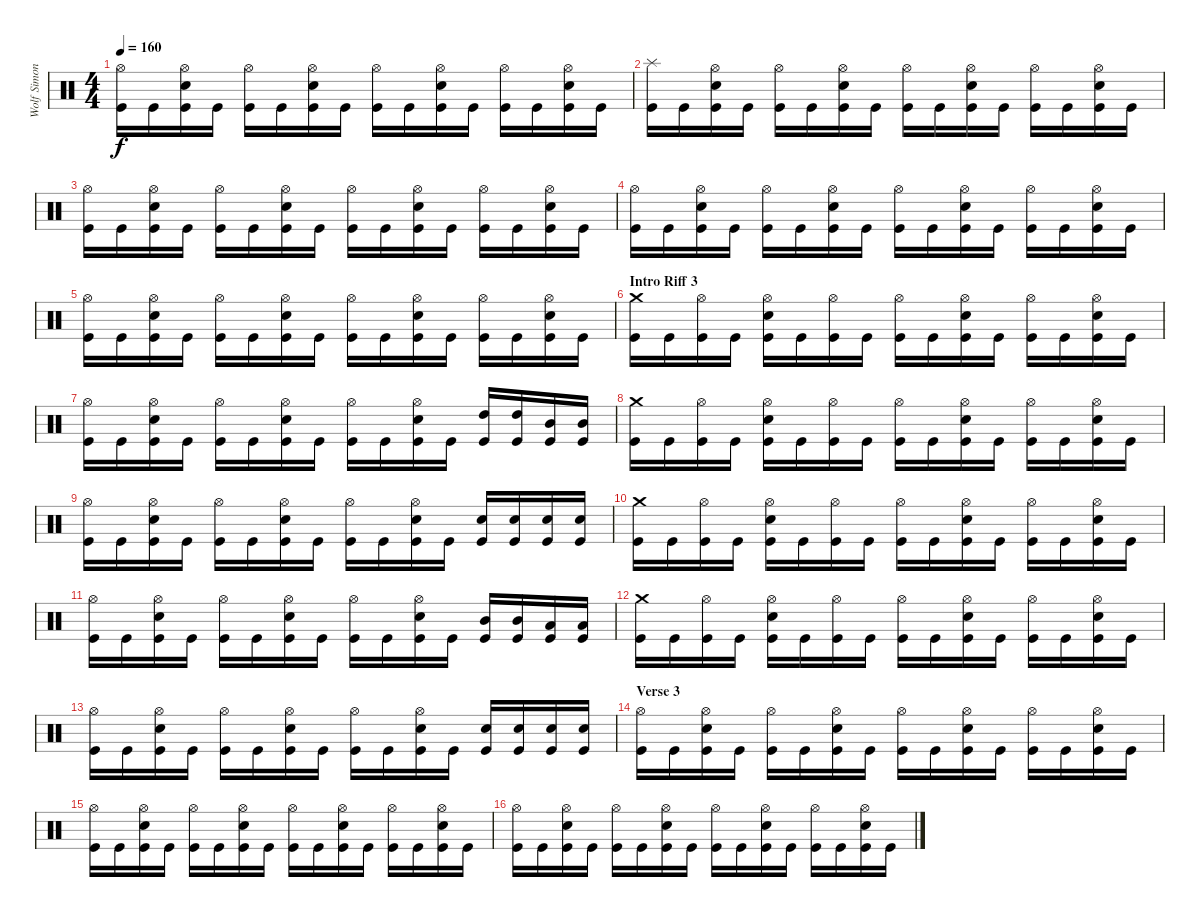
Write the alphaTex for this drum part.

\track ("Wolf Simons" "Wolf Simon") {instrument percussion}
\staff {score}
\articulation defaults
\ts (4 4)
\tempo 160
\clef neutral
\ks c
("Hi-Hat (open)" "Kick (hit)").16{dy f} "Kick (hit)".16 ("Hi-Hat (open)" "Electric Snare (hit)" "Kick (hit)").16 "Kick (hit)".16 ("Hi-Hat (open)" "Kick (hit)").16 "Kick (hit)".16 ("Hi-Hat (open)" "Electric Snare (hit)" "Kick (hit)").16 "Kick (hit)".16 ("Hi-Hat (open)" "Kick (hit)").16 "Kick (hit)".16 ("Hi-Hat (open)" "Electric Snare (hit)" "Kick (hit)").16 "Kick (hit)".16 ("Hi-Hat (open)" "Kick (hit)").16 "Kick (hit)".16 ("Hi-Hat (open)" "Electric Snare (hit)" "Kick (hit)").16 "Kick (hit)".16 |
("Splash (hit)" "Kick (hit)").16 "Kick (hit)".16 ("Hi-Hat (open)" "Electric Snare (hit)" "Kick (hit)").16 "Kick (hit)".16 ("Hi-Hat (open)" "Kick (hit)").16 "Kick (hit)".16 ("Hi-Hat (open)" "Electric Snare (hit)" "Kick (hit)").16 "Kick (hit)".16 ("Hi-Hat (open)" "Kick (hit)").16 "Kick (hit)".16 ("Hi-Hat (open)" "Electric Snare (hit)" "Kick (hit)").16 "Kick (hit)".16 ("Hi-Hat (open)" "Kick (hit)").16 "Kick (hit)".16 ("Hi-Hat (open)" "Electric Snare (hit)" "Kick (hit)").16 "Kick (hit)".16 |
("Hi-Hat (open)" "Kick (hit)").16 "Kick (hit)".16 ("Hi-Hat (open)" "Electric Snare (hit)" "Kick (hit)").16 "Kick (hit)".16 ("Hi-Hat (open)" "Kick (hit)").16 "Kick (hit)".16 ("Hi-Hat (open)" "Electric Snare (hit)" "Kick (hit)").16 "Kick (hit)".16 ("Hi-Hat (open)" "Kick (hit)").16 "Kick (hit)".16 ("Hi-Hat (open)" "Electric Snare (hit)" "Kick (hit)").16 "Kick (hit)".16 ("Hi-Hat (open)" "Kick (hit)").16 "Kick (hit)".16 ("Hi-Hat (open)" "Electric Snare (hit)" "Kick (hit)").16 "Kick (hit)".16 |
("Hi-Hat (open)" "Kick (hit)").16 "Kick (hit)".16 ("Hi-Hat (open)" "Electric Snare (hit)" "Kick (hit)").16 "Kick (hit)".16 ("Hi-Hat (open)" "Kick (hit)").16 "Kick (hit)".16 ("Hi-Hat (open)" "Electric Snare (hit)" "Kick (hit)").16 "Kick (hit)".16 ("Hi-Hat (open)" "Kick (hit)").16 "Kick (hit)".16 ("Hi-Hat (open)" "Electric Snare (hit)" "Kick (hit)").16 "Kick (hit)".16 ("Hi-Hat (open)" "Kick (hit)").16 "Kick (hit)".16 ("Hi-Hat (open)" "Electric Snare (hit)" "Kick (hit)").16 "Kick (hit)".16 |
("Hi-Hat (open)" "Kick (hit)").16 "Kick (hit)".16 ("Hi-Hat (open)" "Electric Snare (hit)" "Kick (hit)").16 "Kick (hit)".16 ("Hi-Hat (open)" "Kick (hit)").16 "Kick (hit)".16 ("Hi-Hat (open)" "Electric Snare (hit)" "Kick (hit)").16 "Kick (hit)".16 ("Hi-Hat (open)" "Kick (hit)").16 "Kick (hit)".16 ("Hi-Hat (open)" "Electric Snare (hit)" "Kick (hit)").16 "Kick (hit)".16 ("Hi-Hat (open)" "Kick (hit)").16 "Kick (hit)".16 ("Hi-Hat (open)" "Electric Snare (hit)" "Kick (hit)").16 "Kick (hit)".16 |
\section ("" "Intro Riff 3")
("Crash medium (hit)" "Kick (hit)").16 "Kick (hit)".16 ("Hi-Hat (open)" "Kick (hit)").16 "Kick (hit)".16 ("Hi-Hat (open)" "Electric Snare (hit)" "Kick (hit)").16 "Kick (hit)".16 ("Hi-Hat (open)" "Kick (hit)").16 "Kick (hit)".16 ("Hi-Hat (open)" "Kick (hit)").16 "Kick (hit)".16 ("Hi-Hat (open)" "Electric Snare (hit)" "Kick (hit)").16 "Kick (hit)".16 ("Hi-Hat (open)" "Kick (hit)").16 "Kick (hit)".16 ("Hi-Hat (open)" "Electric Snare (hit)" "Kick (hit)").16 "Kick (hit)".16 |
("Hi-Hat (open)" "Kick (hit)").16 "Kick (hit)".16 ("Hi-Hat (open)" "Electric Snare (hit)" "Kick (hit)").16 "Kick (hit)".16 ("Hi-Hat (open)" "Kick (hit)").16 "Kick (hit)".16 ("Hi-Hat (open)" "Electric Snare (hit)" "Kick (hit)").16 "Kick (hit)".16 ("Hi-Hat (open)" "Kick (hit)").16 "Kick (hit)".16 ("Hi-Hat (open)" "Electric Snare (hit)" "Kick (hit)").16 "Kick (hit)".16 ("High Tom (hit)" "Kick (hit)").16 ("High Tom (hit)" "Kick (hit)").16 ("Mid Tom (hit)" "Kick (hit)").16 ("Mid Tom (hit)" "Kick (hit)").16 |
("Crash medium (hit)" "Kick (hit)").16 "Kick (hit)".16 ("Hi-Hat (open)" "Kick (hit)").16 "Kick (hit)".16 ("Hi-Hat (open)" "Electric Snare (hit)" "Kick (hit)").16 "Kick (hit)".16 ("Hi-Hat (open)" "Kick (hit)").16 "Kick (hit)".16 ("Hi-Hat (open)" "Kick (hit)").16 "Kick (hit)".16 ("Hi-Hat (open)" "Electric Snare (hit)" "Kick (hit)").16 "Kick (hit)".16 ("Hi-Hat (open)" "Kick (hit)").16 "Kick (hit)".16 ("Hi-Hat (open)" "Electric Snare (hit)" "Kick (hit)").16 "Kick (hit)".16 |
("Hi-Hat (open)" "Kick (hit)").16 "Kick (hit)".16 ("Hi-Hat (open)" "Electric Snare (hit)" "Kick (hit)").16 "Kick (hit)".16 ("Hi-Hat (open)" "Kick (hit)").16 "Kick (hit)".16 ("Hi-Hat (open)" "Electric Snare (hit)" "Kick (hit)").16 "Kick (hit)".16 ("Hi-Hat (open)" "Kick (hit)").16 "Kick (hit)".16 ("Hi-Hat (open)" "Electric Snare (hit)" "Kick (hit)").16 "Kick (hit)".16 ("Electric Snare (hit)" "Kick (hit)").16 ("Electric Snare (hit)" "Kick (hit)").16 ("Electric Snare (hit)" "Kick (hit)").16 ("Electric Snare (hit)" "Kick (hit)").16 |
("Crash medium (hit)" "Kick (hit)").16 "Kick (hit)".16 ("Hi-Hat (open)" "Kick (hit)").16 "Kick (hit)".16 ("Hi-Hat (open)" "Electric Snare (hit)" "Kick (hit)").16 "Kick (hit)".16 ("Hi-Hat (open)" "Kick (hit)").16 "Kick (hit)".16 ("Hi-Hat (open)" "Kick (hit)").16 "Kick (hit)".16 ("Hi-Hat (open)" "Electric Snare (hit)" "Kick (hit)").16 "Kick (hit)".16 ("Hi-Hat (open)" "Kick (hit)").16 "Kick (hit)".16 ("Hi-Hat (open)" "Electric Snare (hit)" "Kick (hit)").16 "Kick (hit)".16 |
("Hi-Hat (open)" "Kick (hit)").16 "Kick (hit)".16 ("Hi-Hat (open)" "Electric Snare (hit)" "Kick (hit)").16 "Kick (hit)".16 ("Hi-Hat (open)" "Kick (hit)").16 "Kick (hit)".16 ("Hi-Hat (open)" "Electric Snare (hit)" "Kick (hit)").16 "Kick (hit)".16 ("Hi-Hat (open)" "Kick (hit)").16 "Kick (hit)".16 ("Hi-Hat (open)" "Electric Snare (hit)" "Kick (hit)").16 "Kick (hit)".16 ("Mid Tom (hit)" "Kick (hit)").16 ("Mid Tom (hit)" "Kick (hit)").16 ("Low Tom (hit)" "Kick (hit)").16 ("Low Tom (hit)" "Kick (hit)").16 |
("Crash medium (hit)" "Kick (hit)").16 "Kick (hit)".16 ("Hi-Hat (open)" "Kick (hit)").16 "Kick (hit)".16 ("Hi-Hat (open)" "Electric Snare (hit)" "Kick (hit)").16 "Kick (hit)".16 ("Hi-Hat (open)" "Kick (hit)").16 "Kick (hit)".16 ("Hi-Hat (open)" "Kick (hit)").16 "Kick (hit)".16 ("Hi-Hat (open)" "Electric Snare (hit)" "Kick (hit)").16 "Kick (hit)".16 ("Hi-Hat (open)" "Kick (hit)").16 "Kick (hit)".16 ("Hi-Hat (open)" "Electric Snare (hit)" "Kick (hit)").16 "Kick (hit)".16 |
("Hi-Hat (open)" "Kick (hit)").16 "Kick (hit)".16 ("Hi-Hat (open)" "Electric Snare (hit)" "Kick (hit)").16 "Kick (hit)".16 ("Hi-Hat (open)" "Kick (hit)").16 "Kick (hit)".16 ("Hi-Hat (open)" "Electric Snare (hit)" "Kick (hit)").16 "Kick (hit)".16 ("Hi-Hat (open)" "Kick (hit)").16 "Kick (hit)".16 ("Hi-Hat (open)" "Electric Snare (hit)" "Kick (hit)").16 "Kick (hit)".16 ("Electric Snare (hit)" "Kick (hit)").16 ("Electric Snare (hit)" "Kick (hit)").16 ("Electric Snare (hit)" "Kick (hit)").16 ("Electric Snare (hit)" "Kick (hit)").16 |
\section ("" "Verse 3")
("Hi-Hat (open)" "Kick (hit)").16 "Kick (hit)".16 ("Hi-Hat (open)" "Electric Snare (hit)" "Kick (hit)").16 "Kick (hit)".16 ("Hi-Hat (open)" "Kick (hit)").16 "Kick (hit)".16 ("Hi-Hat (open)" "Electric Snare (hit)" "Kick (hit)").16 "Kick (hit)".16 ("Hi-Hat (open)" "Kick (hit)").16 "Kick (hit)".16 ("Hi-Hat (open)" "Electric Snare (hit)" "Kick (hit)").16 "Kick (hit)".16 ("Hi-Hat (open)" "Kick (hit)").16 "Kick (hit)".16 ("Hi-Hat (open)" "Electric Snare (hit)" "Kick (hit)").16 "Kick (hit)".16 |
("Hi-Hat (open)" "Kick (hit)").16 "Kick (hit)".16 ("Hi-Hat (open)" "Electric Snare (hit)" "Kick (hit)").16 "Kick (hit)".16 ("Hi-Hat (open)" "Kick (hit)").16 "Kick (hit)".16 ("Hi-Hat (open)" "Electric Snare (hit)" "Kick (hit)").16 "Kick (hit)".16 ("Hi-Hat (open)" "Kick (hit)").16 "Kick (hit)".16 ("Hi-Hat (open)" "Electric Snare (hit)" "Kick (hit)").16 "Kick (hit)".16 ("Hi-Hat (open)" "Kick (hit)").16 "Kick (hit)".16 ("Hi-Hat (open)" "Electric Snare (hit)" "Kick (hit)").16 "Kick (hit)".16 |
("Hi-Hat (open)" "Kick (hit)").16 "Kick (hit)".16 ("Hi-Hat (open)" "Electric Snare (hit)" "Kick (hit)").16 "Kick (hit)".16 ("Hi-Hat (open)" "Kick (hit)").16 "Kick (hit)".16 ("Hi-Hat (open)" "Electric Snare (hit)" "Kick (hit)").16 "Kick (hit)".16 ("Hi-Hat (open)" "Kick (hit)").16 "Kick (hit)".16 ("Hi-Hat (open)" "Electric Snare (hit)" "Kick (hit)").16 "Kick (hit)".16 ("Hi-Hat (open)" "Kick (hit)").16 "Kick (hit)".16 ("Hi-Hat (open)" "Electric Snare (hit)" "Kick (hit)").16 "Kick (hit)".16
